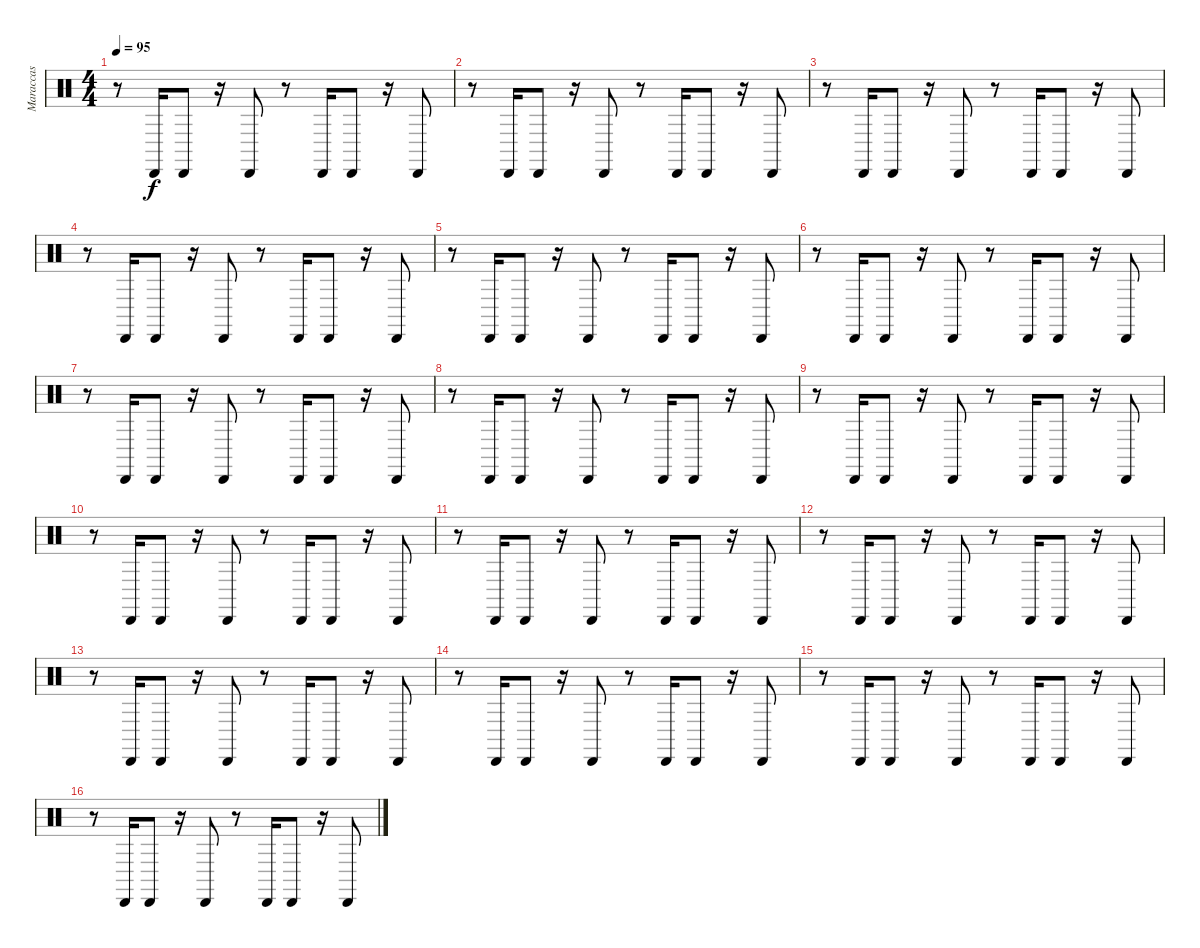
\track ("Maraccas" "Maraccas") {instrument percussion}
\staff {score}
\articulation defaults
\ts (4 4)
\tempo 95
\clef neutral
\ks c
r.8{dy f} "Cabasa (hit)".16 "Cabasa (hit)".8 r.16 "Cabasa (hit)".8 r.8 "Cabasa (hit)".16 "Cabasa (hit)".8 r.16 "Cabasa (hit)".8 |
r.8 "Cabasa (hit)".16 "Cabasa (hit)".8 r.16 "Cabasa (hit)".8 r.8 "Cabasa (hit)".16 "Cabasa (hit)".8 r.16 "Cabasa (hit)".8 |
r.8 "Cabasa (hit)".16 "Cabasa (hit)".8 r.16 "Cabasa (hit)".8 r.8 "Cabasa (hit)".16 "Cabasa (hit)".8 r.16 "Cabasa (hit)".8 |
r.8 "Cabasa (hit)".16 "Cabasa (hit)".8 r.16 "Cabasa (hit)".8 r.8 "Cabasa (hit)".16 "Cabasa (hit)".8 r.16 "Cabasa (hit)".8 |
r.8 "Cabasa (hit)".16 "Cabasa (hit)".8 r.16 "Cabasa (hit)".8 r.8 "Cabasa (hit)".16 "Cabasa (hit)".8 r.16 "Cabasa (hit)".8 |
r.8 "Cabasa (hit)".16 "Cabasa (hit)".8 r.16 "Cabasa (hit)".8 r.8 "Cabasa (hit)".16 "Cabasa (hit)".8 r.16 "Cabasa (hit)".8 |
r.8 "Cabasa (hit)".16 "Cabasa (hit)".8 r.16 "Cabasa (hit)".8 r.8 "Cabasa (hit)".16 "Cabasa (hit)".8 r.16 "Cabasa (hit)".8 |
r.8 "Cabasa (hit)".16 "Cabasa (hit)".8 r.16 "Cabasa (hit)".8 r.8 "Cabasa (hit)".16 "Cabasa (hit)".8 r.16 "Cabasa (hit)".8 |
r.8 "Cabasa (hit)".16 "Cabasa (hit)".8 r.16 "Cabasa (hit)".8 r.8 "Cabasa (hit)".16 "Cabasa (hit)".8 r.16 "Cabasa (hit)".8 |
r.8 "Cabasa (hit)".16 "Cabasa (hit)".8 r.16 "Cabasa (hit)".8 r.8 "Cabasa (hit)".16 "Cabasa (hit)".8 r.16 "Cabasa (hit)".8 |
r.8 "Cabasa (hit)".16 "Cabasa (hit)".8 r.16 "Cabasa (hit)".8 r.8 "Cabasa (hit)".16 "Cabasa (hit)".8 r.16 "Cabasa (hit)".8 |
r.8 "Cabasa (hit)".16 "Cabasa (hit)".8 r.16 "Cabasa (hit)".8 r.8 "Cabasa (hit)".16 "Cabasa (hit)".8 r.16 "Cabasa (hit)".8 |
r.8 "Cabasa (hit)".16 "Cabasa (hit)".8 r.16 "Cabasa (hit)".8 r.8 "Cabasa (hit)".16 "Cabasa (hit)".8 r.16 "Cabasa (hit)".8 |
r.8 "Cabasa (hit)".16 "Cabasa (hit)".8 r.16 "Cabasa (hit)".8 r.8 "Cabasa (hit)".16 "Cabasa (hit)".8 r.16 "Cabasa (hit)".8 |
r.8 "Cabasa (hit)".16 "Cabasa (hit)".8 r.16 "Cabasa (hit)".8 r.8 "Cabasa (hit)".16 "Cabasa (hit)".8 r.16 "Cabasa (hit)".8 |
r.8 "Cabasa (hit)".16 "Cabasa (hit)".8 r.16 "Cabasa (hit)".8 r.8 "Cabasa (hit)".16 "Cabasa (hit)".8 r.16 "Cabasa (hit)".8
